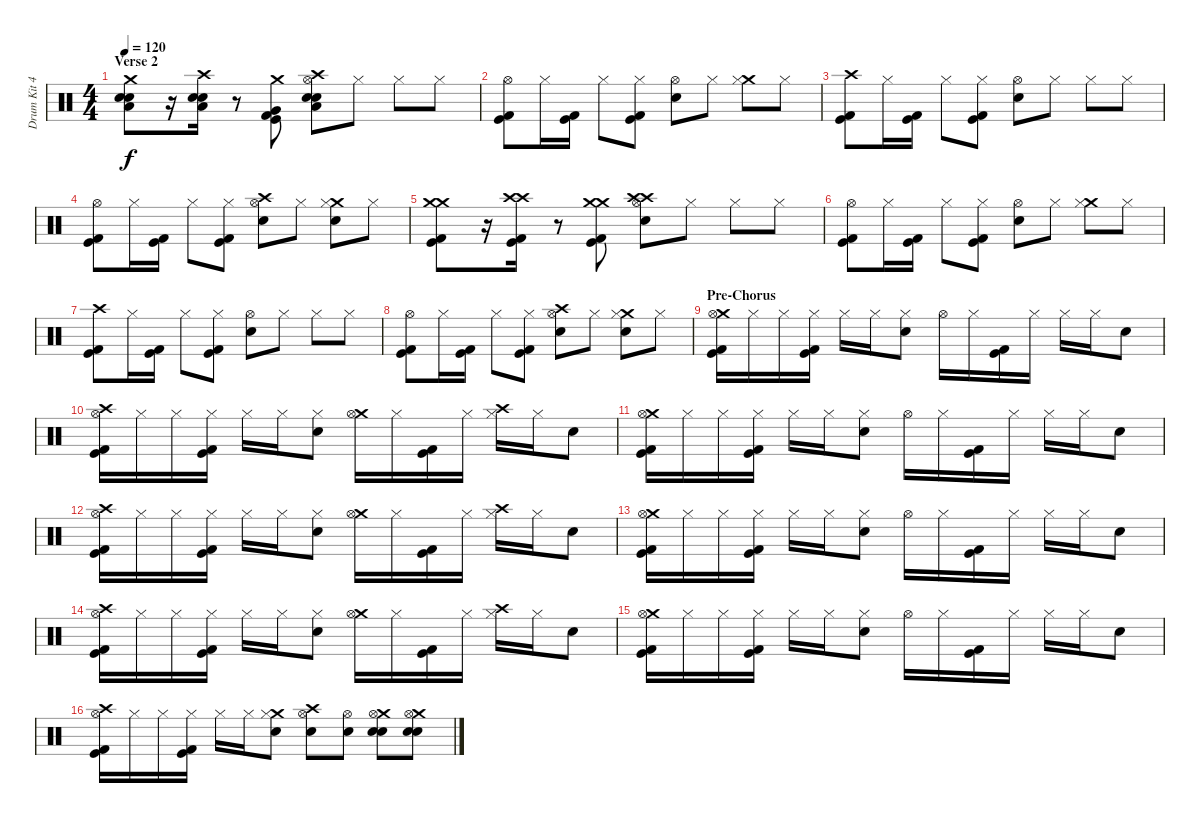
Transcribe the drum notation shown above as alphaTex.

\track ("Drum Kit 42" "Drum Kit 4") {instrument percussion}
\staff {score}
\articulation defaults
\ts (4 4)
\section ("" "Verse 2")
\tempo 120
\clef neutral
\ks c
("Crash medium (hit)" "Low Tom (hit)" "Snare (hit) 2" "Snare (hit) 2").8{dy f} r.16 ("Crash high (hit)" "Low Tom (hit)" "Snare (hit) 2" "Snare (hit) 2").16 r.8 ("Crash medium (hit)" "Very Low Tom (hit)" "Kick (hit)" "Kick (hit) 2").8 ("Crash high (hit)" "Low Tom (hit)" "Hi-Hat (open)" "Snare (hit) 2" "Snare (hit) 2").8 "Hi-Hat (closed)".8 "Hi-Hat (closed)".8 "Hi-Hat (closed)".8 |
("Hi-Hat (open)" "Kick (hit)" "Kick (hit) 2").8 "Hi-Hat (closed)".16 ("Kick (hit)" "Kick (hit) 2").16 "Hi-Hat (closed)".8 ("Hi-Hat (closed)" "Kick (hit)" "Kick (hit) 2").8 ("Hi-Hat (open)" "Snare (hit) 2").8 "Hi-Hat (closed)".8 ("Crash medium (hit)" "Hi-Hat (closed)").8 "Hi-Hat (closed)".8 |
("Crash high (hit)" "Kick (hit)" "Kick (hit) 2").8 "Hi-Hat (closed)".16 ("Kick (hit)" "Kick (hit) 2").16 "Hi-Hat (closed)".8 ("Hi-Hat (closed)" "Kick (hit)" "Kick (hit) 2").8 ("Hi-Hat (open)" "Snare (hit) 2").8 "Hi-Hat (closed)".8 "Hi-Hat (closed)".8 "Hi-Hat (closed)".8 |
("Hi-Hat (open)" "Kick (hit)" "Kick (hit) 2").8 "Hi-Hat (closed)".16 ("Kick (hit)" "Kick (hit) 2").16 "Hi-Hat (closed)".8 ("Hi-Hat (closed)" "Kick (hit)" "Kick (hit) 2").8 ("Crash high (hit)" "Hi-Hat (open)" "Snare (hit) 2").8 "Hi-Hat (closed)".8 ("Crash medium (hit)" "Hi-Hat (closed)" "Snare (hit) 2").8 "Hi-Hat (closed)".8 |
("Crash medium (hit)" "Crash medium (hit)" "Kick (hit)" "Kick (hit) 2").8 r.16 ("Crash high (hit)" "Crash high (hit)" "Kick (hit)" "Kick (hit) 2").16 r.8 ("Crash medium (hit)" "Crash medium (hit)" "Kick (hit)" "Kick (hit) 2").8 ("Crash high (hit)" "Crash high (hit)" "Hi-Hat (open)" "Snare (hit) 2").8 "Hi-Hat (closed)".8 "Hi-Hat (closed)".8 "Hi-Hat (closed)".8 |
("Hi-Hat (open)" "Kick (hit)" "Kick (hit) 2").8 "Hi-Hat (closed)".16 ("Kick (hit)" "Kick (hit) 2").16 "Hi-Hat (closed)".8 ("Hi-Hat (closed)" "Kick (hit)" "Kick (hit) 2").8 ("Hi-Hat (open)" "Snare (hit) 2").8 "Hi-Hat (closed)".8 ("Crash medium (hit)" "Hi-Hat (closed)").8 "Hi-Hat (closed)".8 |
("Crash high (hit)" "Kick (hit)" "Kick (hit) 2").8 "Hi-Hat (closed)".16 ("Kick (hit)" "Kick (hit) 2").16 "Hi-Hat (closed)".8 ("Hi-Hat (closed)" "Kick (hit)" "Kick (hit) 2").8 ("Hi-Hat (open)" "Snare (hit) 2").8 "Hi-Hat (closed)".8 "Hi-Hat (closed)".8 "Hi-Hat (closed)".8 |
("Hi-Hat (open)" "Kick (hit)" "Kick (hit) 2").8 "Hi-Hat (closed)".16 ("Kick (hit)" "Kick (hit) 2").16 "Hi-Hat (closed)".8 ("Hi-Hat (closed)" "Kick (hit)" "Kick (hit) 2").8 ("Crash high (hit)" "Hi-Hat (open)" "Snare (hit) 2").8 "Hi-Hat (closed)".8 ("Crash medium (hit)" "Hi-Hat (closed)" "Snare (hit) 2").8 "Hi-Hat (closed)".8 |
\section ("" "Pre-Chorus")
("Crash medium (hit)" "Hi-Hat (open)" "Kick (hit)" "Kick (hit) 2").16 "Hi-Hat (closed)".16 "Hi-Hat (closed)".16 ("Hi-Hat (closed)" "Kick (hit)" "Kick (hit) 2").16 "Hi-Hat (closed)".16 "Hi-Hat (closed)".16 ("Hi-Hat (closed)" "Snare (hit) 2").8 "Hi-Hat (open)".16 "Hi-Hat (closed)".16 ("Kick (hit)" "Kick (hit) 2").16 "Hi-Hat (closed)".16 "Hi-Hat (closed)".16 "Hi-Hat (closed)".16 "Snare (hit) 2".8 |
("Crash high (hit)" "Hi-Hat (open)" "Kick (hit)" "Kick (hit) 2").16 "Hi-Hat (closed)".16 "Hi-Hat (closed)".16 ("Hi-Hat (closed)" "Kick (hit)" "Kick (hit) 2").16 "Hi-Hat (closed)".16 "Hi-Hat (closed)".16 ("Hi-Hat (closed)" "Snare (hit) 2").8 ("Crash medium (hit)" "Hi-Hat (open)").16 "Hi-Hat (closed)".16 ("Kick (hit)" "Kick (hit) 2").16 "Hi-Hat (closed)".16 ("Crash high (hit)" "Hi-Hat (closed)").16 "Hi-Hat (closed)".16 "Snare (hit) 2".8 |
("Crash medium (hit)" "Hi-Hat (open)" "Kick (hit)" "Kick (hit) 2").16 "Hi-Hat (closed)".16 "Hi-Hat (closed)".16 ("Hi-Hat (closed)" "Kick (hit)" "Kick (hit) 2").16 "Hi-Hat (closed)".16 "Hi-Hat (closed)".16 ("Hi-Hat (closed)" "Snare (hit) 2").8 "Hi-Hat (open)".16 "Hi-Hat (closed)".16 ("Kick (hit)" "Kick (hit) 2").16 "Hi-Hat (closed)".16 "Hi-Hat (closed)".16 "Hi-Hat (closed)".16 "Snare (hit) 2".8 |
("Crash high (hit)" "Hi-Hat (open)" "Kick (hit)" "Kick (hit) 2").16 "Hi-Hat (closed)".16 "Hi-Hat (closed)".16 ("Hi-Hat (closed)" "Kick (hit)" "Kick (hit) 2").16 "Hi-Hat (closed)".16 "Hi-Hat (closed)".16 ("Hi-Hat (closed)" "Snare (hit) 2").8 ("Crash medium (hit)" "Hi-Hat (open)").16 "Hi-Hat (closed)".16 ("Kick (hit)" "Kick (hit) 2").16 "Hi-Hat (closed)".16 ("Crash high (hit)" "Hi-Hat (closed)").16 "Hi-Hat (closed)".16 "Snare (hit) 2".8 |
("Crash medium (hit)" "Hi-Hat (open)" "Kick (hit)" "Kick (hit) 2").16 "Hi-Hat (closed)".16 "Hi-Hat (closed)".16 ("Hi-Hat (closed)" "Kick (hit)" "Kick (hit) 2").16 "Hi-Hat (closed)".16 "Hi-Hat (closed)".16 ("Hi-Hat (closed)" "Snare (hit) 2").8 "Hi-Hat (open)".16 "Hi-Hat (closed)".16 ("Kick (hit)" "Kick (hit) 2").16 "Hi-Hat (closed)".16 "Hi-Hat (closed)".16 "Hi-Hat (closed)".16 "Snare (hit) 2".8 |
("Crash high (hit)" "Hi-Hat (open)" "Kick (hit)" "Kick (hit) 2").16 "Hi-Hat (closed)".16 "Hi-Hat (closed)".16 ("Hi-Hat (closed)" "Kick (hit)" "Kick (hit) 2").16 "Hi-Hat (closed)".16 "Hi-Hat (closed)".16 ("Hi-Hat (closed)" "Snare (hit) 2").8 ("Crash medium (hit)" "Hi-Hat (open)").16 "Hi-Hat (closed)".16 ("Kick (hit)" "Kick (hit) 2").16 "Hi-Hat (closed)".16 ("Crash high (hit)" "Hi-Hat (closed)").16 "Hi-Hat (closed)".16 "Snare (hit) 2".8 |
("Crash medium (hit)" "Hi-Hat (open)" "Kick (hit)" "Kick (hit) 2").16 "Hi-Hat (closed)".16 "Hi-Hat (closed)".16 ("Hi-Hat (closed)" "Kick (hit)" "Kick (hit) 2").16 "Hi-Hat (closed)".16 "Hi-Hat (closed)".16 ("Hi-Hat (closed)" "Snare (hit) 2").8 "Hi-Hat (open)".16 "Hi-Hat (closed)".16 ("Kick (hit)" "Kick (hit) 2").16 "Hi-Hat (closed)".16 "Hi-Hat (closed)".16 "Hi-Hat (closed)".16 "Snare (hit) 2".8 |
("Crash high (hit)" "Hi-Hat (open)" "Kick (hit)" "Kick (hit) 2").16 "Hi-Hat (closed)".16 "Hi-Hat (closed)".16 ("Hi-Hat (closed)" "Kick (hit)" "Kick (hit) 2").16 "Hi-Hat (closed)".16 "Hi-Hat (closed)".16 ("Crash medium (hit)" "Hi-Hat (closed)" "Snare (hit) 2").8 ("Crash high (hit)" "Hi-Hat (open)" "Snare (hit) 2").8 ("Hi-Hat (open)" "Snare (hit) 2").8 ("Crash medium (hit)" "Hi-Hat (open)" "Snare (hit) 2" "Snare (hit) 2").8 ("Crash medium (hit)" "Hi-Hat (open)" "Snare (hit) 2" "Snare (hit) 2").8
